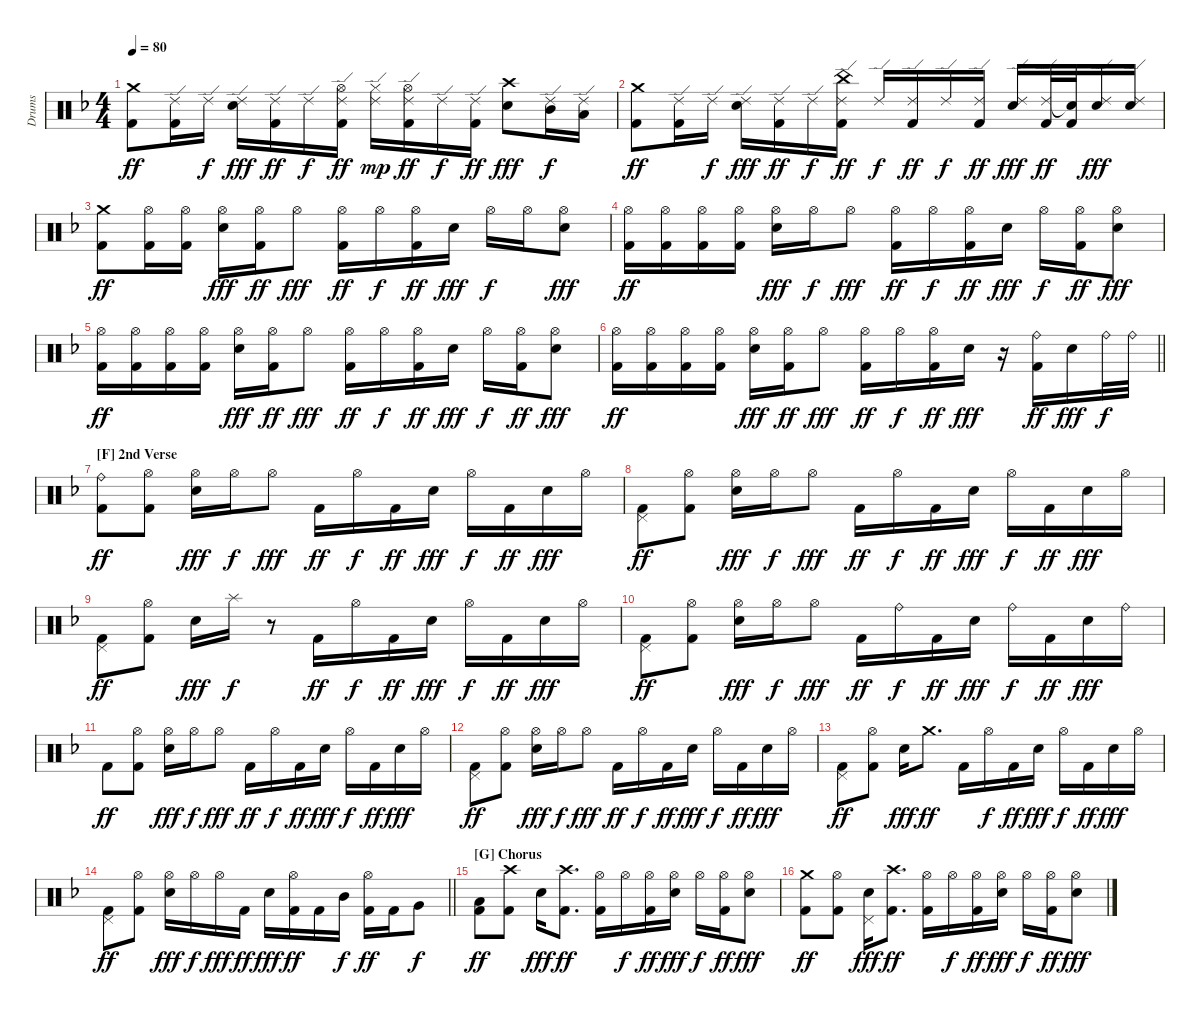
\track ("Drums" "Drums") {instrument percussion}
\staff {score}
\articulation defaults
\ts (4 4)
\tempo 80
\clef neutral
\ks dminor
("Crash medium (hit)" "Kick (hit) 2").8{dy ff} ("Ride (edge) 2" "Kick (hit) 2").16 "Ride (edge) 2".16{dy f} ("Ride (edge) 2" "Electric Snare (hit)").16{dy fff} ("Ride (edge) 2" "Kick (hit) 2").16{dy ff} "Ride (edge) 2".16{dy f} ("Ride (edge) 2" "Hi-Hat (open)" "Kick (hit) 2").16{dy ff} ("Ride (edge) 2" "Hi-Hat (closed)").16{dy mp} ("Ride (edge) 2" "Hi-Hat (open)" "Kick (hit) 2").16{dy ff} "Ride (edge) 2".16{dy f} ("Ride (edge) 2" "Kick (hit) 2").16{dy ff} ("Crash high (hit)" "Electric Snare (hit)").8{dy fff} ("Ride (edge) 2" "Mid Tom (hit)").16{dy f} ("Ride (edge) 2" "Low Tom (hit)").16 |
("Crash medium (hit)" "Kick (hit) 2").8{dy ff} ("Ride (edge) 2" "Kick (hit) 2").16 "Ride (edge) 2".16{dy f} ("Ride (edge) 2" "Electric Snare (hit)").16{dy fff} ("Ride (edge) 2" "Kick (hit) 2").16{dy ff} "Ride (edge) 2".16{dy f} ("Ride (edge) 2" "China (hit)" "Kick (hit) 2").16{dy ff} "Ride (edge) 2".16{dy f} ("Ride (edge) 2" "Kick (hit) 2").16{dy ff} "Ride (edge) 2".16{dy f} ("Ride (edge) 2" "Kick (hit) 2").16{dy ff} ("Ride (edge) 2" "Electric Snare (hit)").16{dy fff} ("Ride (edge) 2" "Kick (hit) 2").32{dy ff} ("Snare (hit)"{t} "Kick (hit) 2").32 ("Ride (edge) 2" "Electric Snare (hit)").16{dy fff} ("Ride (edge) 2" "Electric Snare (hit)").16 |
("Crash medium (hit)" "Kick (hit) 2").8{dy ff} ("Hi-Hat (open)" "Kick (hit) 2").16 ("Hi-Hat (open)" "Kick (hit) 2").16 ("Hi-Hat (open)" "Electric Snare (hit)").16{dy fff} ("Hi-Hat (open)" "Kick (hit) 2").16{dy ff} "Hi-Hat (open)".8{dy fff} ("Hi-Hat (open)" "Kick (hit) 2").16{dy ff} "Hi-Hat (open)".16{dy f} ("Hi-Hat (open)" "Kick (hit) 2").16{dy ff} "Electric Snare (hit)".16{dy fff} "Hi-Hat (open)".16{dy f} "Hi-Hat (open)".16 ("Hi-Hat (open)" "Electric Snare (hit)").8{dy fff} |
("Hi-Hat (open)" "Kick (hit) 2").16{dy ff} ("Hi-Hat (open)" "Kick (hit) 2").16 ("Hi-Hat (open)" "Kick (hit) 2").16 ("Hi-Hat (open)" "Kick (hit) 2").16 ("Hi-Hat (open)" "Electric Snare (hit)").16{dy fff} "Hi-Hat (open)".16{dy f} "Hi-Hat (open)".8{dy fff} ("Hi-Hat (open)" "Kick (hit) 2").16{dy ff} "Hi-Hat (open)".16{dy f} ("Hi-Hat (open)" "Kick (hit) 2").16{dy ff} "Electric Snare (hit)".16{dy fff} "Hi-Hat (open)".16{dy f} ("Hi-Hat (open)" "Kick (hit) 2").16{dy ff} ("Hi-Hat (open)" "Electric Snare (hit)").8{dy fff} |
("Hi-Hat (open)" "Kick (hit) 2").16{dy ff} ("Hi-Hat (open)" "Kick (hit) 2").16 ("Hi-Hat (open)" "Kick (hit) 2").16 ("Hi-Hat (open)" "Kick (hit) 2").16 ("Hi-Hat (open)" "Electric Snare (hit)").16{dy fff} ("Hi-Hat (open)" "Kick (hit) 2").16{dy ff} "Hi-Hat (open)".8{dy fff} ("Hi-Hat (open)" "Kick (hit) 2").16{dy ff} "Hi-Hat (open)".16{dy f} ("Hi-Hat (open)" "Kick (hit) 2").16{dy ff} "Electric Snare (hit)".16{dy fff} "Hi-Hat (open)".16{dy f} ("Hi-Hat (open)" "Kick (hit) 2").16{dy ff} ("Hi-Hat (open)" "Electric Snare (hit)").8{dy fff} |
\barLineRight lightlight
("Hi-Hat (open)" "Kick (hit) 2").16{dy ff} ("Hi-Hat (open)" "Kick (hit) 2").16 ("Hi-Hat (open)" "Kick (hit) 2").16 ("Hi-Hat (open)" "Kick (hit) 2").16 ("Hi-Hat (open)" "Electric Snare (hit)").16{dy fff} ("Hi-Hat (open)" "Kick (hit) 2").16{dy ff} "Hi-Hat (open)".8{dy fff} ("Hi-Hat (open)" "Kick (hit) 2").16{dy ff} "Hi-Hat (open)".16{dy f} ("Hi-Hat (open)" "Kick (hit) 2").16{dy ff} "Electric Snare (hit)".16{dy fff} r.16 ("Ride (bell)" "Kick (hit) 2").16{dy ff} "Electric Snare (hit)".16{dy fff} "Ride (bell)".32{dy f} "Ride (bell)".32 |
\section ("" "[F] 2nd Verse")
("Ride (bell)" "Kick (hit) 2").8{dy ff} ("Hi-Hat (open)" "Kick (hit) 2").8 ("Hi-Hat (open)" "Electric Snare (hit)").16{dy fff} "Hi-Hat (open)".16{dy f} "Hi-Hat (open)".8{dy fff} "Kick (hit) 2".16{dy ff} "Hi-Hat (open)".16{dy f} "Kick (hit) 2".16{dy ff} "Electric Snare (hit)".16{dy fff} "Hi-Hat (open)".16{dy f} "Kick (hit) 2".16{dy ff} "Electric Snare (hit)".16{dy fff} "Hi-Hat (open)".16 |
("Pedal Hi-Hat (hit)" "Kick (hit) 2").8{dy ff} ("Hi-Hat (open)" "Kick (hit) 2").8 ("Hi-Hat (open)" "Electric Snare (hit)").16{dy fff} "Hi-Hat (open)".16{dy f} "Hi-Hat (open)".8{dy fff} "Kick (hit) 2".16{dy ff} "Hi-Hat (open)".16{dy f} "Kick (hit) 2".16{dy ff} "Electric Snare (hit)".16{dy fff} "Hi-Hat (open)".16{dy f} "Kick (hit) 2".16{dy ff} "Electric Snare (hit)".16{dy fff} "Hi-Hat (open)".16 |
("Pedal Hi-Hat (hit)" "Kick (hit) 2").8{dy ff} ("Hi-Hat (open)" "Kick (hit) 2").8 "Electric Snare (hit)".16{dy fff} "Splash (hit)".16{dy f} r.8 "Kick (hit) 2".16{dy ff} "Hi-Hat (open)".16{dy f} "Kick (hit) 2".16{dy ff} "Electric Snare (hit)".16{dy fff} "Hi-Hat (open)".16{dy f} "Kick (hit) 2".16{dy ff} "Electric Snare (hit)".16{dy fff} "Hi-Hat (open)".16 |
("Pedal Hi-Hat (hit)" "Kick (hit) 2").8{dy ff} ("Hi-Hat (open)" "Kick (hit) 2").8 ("Hi-Hat (open)" "Electric Snare (hit)").16{dy fff} "Hi-Hat (open)".16{dy f} "Hi-Hat (open)".8{dy fff} "Kick (hit) 2".16{dy ff} "Ride (bell)".16{dy f} "Kick (hit) 2".16{dy ff} "Electric Snare (hit)".16{dy fff} "Ride (bell)".16{dy f} "Kick (hit) 2".16{dy ff} "Electric Snare (hit)".16{dy fff} "Ride (bell)".16 |
"Kick (hit) 2".8{dy ff} ("Hi-Hat (open)" "Kick (hit) 2").8 ("Hi-Hat (open)" "Electric Snare (hit)").16{dy fff} "Hi-Hat (open)".16{dy f} "Hi-Hat (open)".8{dy fff} "Kick (hit) 2".16{dy ff} "Hi-Hat (open)".16{dy f} "Kick (hit) 2".16{dy ff} "Electric Snare (hit)".16{dy fff} "Hi-Hat (open)".16{dy f} "Kick (hit) 2".16{dy ff} "Electric Snare (hit)".16{dy fff} "Hi-Hat (open)".16 |
("Pedal Hi-Hat (hit)" "Kick (hit) 2").8{dy ff} ("Hi-Hat (open)" "Kick (hit) 2").8 ("Hi-Hat (open)" "Electric Snare (hit)").16{dy fff} "Hi-Hat (open)".16{dy f} "Hi-Hat (open)".8{dy fff} "Kick (hit) 2".16{dy ff} "Hi-Hat (open)".16{dy f} "Kick (hit) 2".16{dy ff} "Electric Snare (hit)".16{dy fff} "Hi-Hat (open)".16{dy f} "Kick (hit) 2".16{dy ff} "Electric Snare (hit)".16{dy fff} "Hi-Hat (open)".16 |
("Pedal Hi-Hat (hit)" "Kick (hit) 2").8{dy ff} ("Hi-Hat (open)" "Kick (hit) 2").8 "Electric Snare (hit)".16{dy fff} "Crash medium (hit)".8{d dy ff} "Kick (hit) 2".16 "Hi-Hat (open)".16{dy f} "Kick (hit) 2".16{dy ff} "Electric Snare (hit)".16{dy fff} "Hi-Hat (open)".16{dy f} "Kick (hit) 2".16{dy ff} "Electric Snare (hit)".16{dy fff} "Hi-Hat (open)".16 |
\barLineRight lightlight
("Pedal Hi-Hat (hit)" "Kick (hit) 2").8{dy ff} ("Hi-Hat (open)" "Kick (hit) 2").8 ("Hi-Hat (open)" "Electric Snare (hit)").16{dy fff} "Hi-Hat (open)".16{dy f} "Hi-Hat (open)".16{dy fff} "Kick (hit) 2".16{dy ff} "Electric Snare (hit)".16{dy fff} ("Hi-Hat (open)" "Kick (hit) 2").16{dy ff} "Kick (hit) 2".16 "Mid Tom (hit)".16{dy f} ("Hi-Hat (open)" "Kick (hit) 2").16{dy ff} "Kick (hit) 2".16 "Very Low Tom (hit)".8{dy f} |
\section ("" "[G] Chorus")
("Low Floor Tom (hit)" "Kick (hit) 2").8{dy ff} ("Crash high (hit)" "Kick (hit) 2").8 "Electric Snare (hit)".16{dy fff} ("Crash high (hit)" "Kick (hit) 2").8{d dy ff} ("Hi-Hat (open)" "Kick (hit) 2").16 "Hi-Hat (open)".16{dy f} ("Hi-Hat (open)" "Kick (hit) 2").16{dy ff} ("Hi-Hat (open)" "Electric Snare (hit)").16{dy fff} "Hi-Hat (open)".16{dy f} ("Hi-Hat (open)" "Kick (hit) 2").16{dy ff} ("Hi-Hat (open)" "Electric Snare (hit)").8{dy fff} |
("Crash medium (hit)" "Kick (hit) 2").8{dy ff} ("Hi-Hat (open)" "Kick (hit) 2").8 ("Pedal Hi-Hat (hit)" "Electric Snare (hit)").16{dy fff} ("Crash high (hit)" "Kick (hit) 2").8{d dy ff} ("Hi-Hat (open)" "Kick (hit) 2").16 "Hi-Hat (open)".16{dy f} ("Hi-Hat (open)" "Kick (hit) 2").16{dy ff} ("Hi-Hat (open)" "Electric Snare (hit)").16{dy fff} "Hi-Hat (open)".16{dy f} ("Hi-Hat (open)" "Kick (hit) 2").16{dy ff} ("Hi-Hat (open)" "Electric Snare (hit)").8{dy fff}
